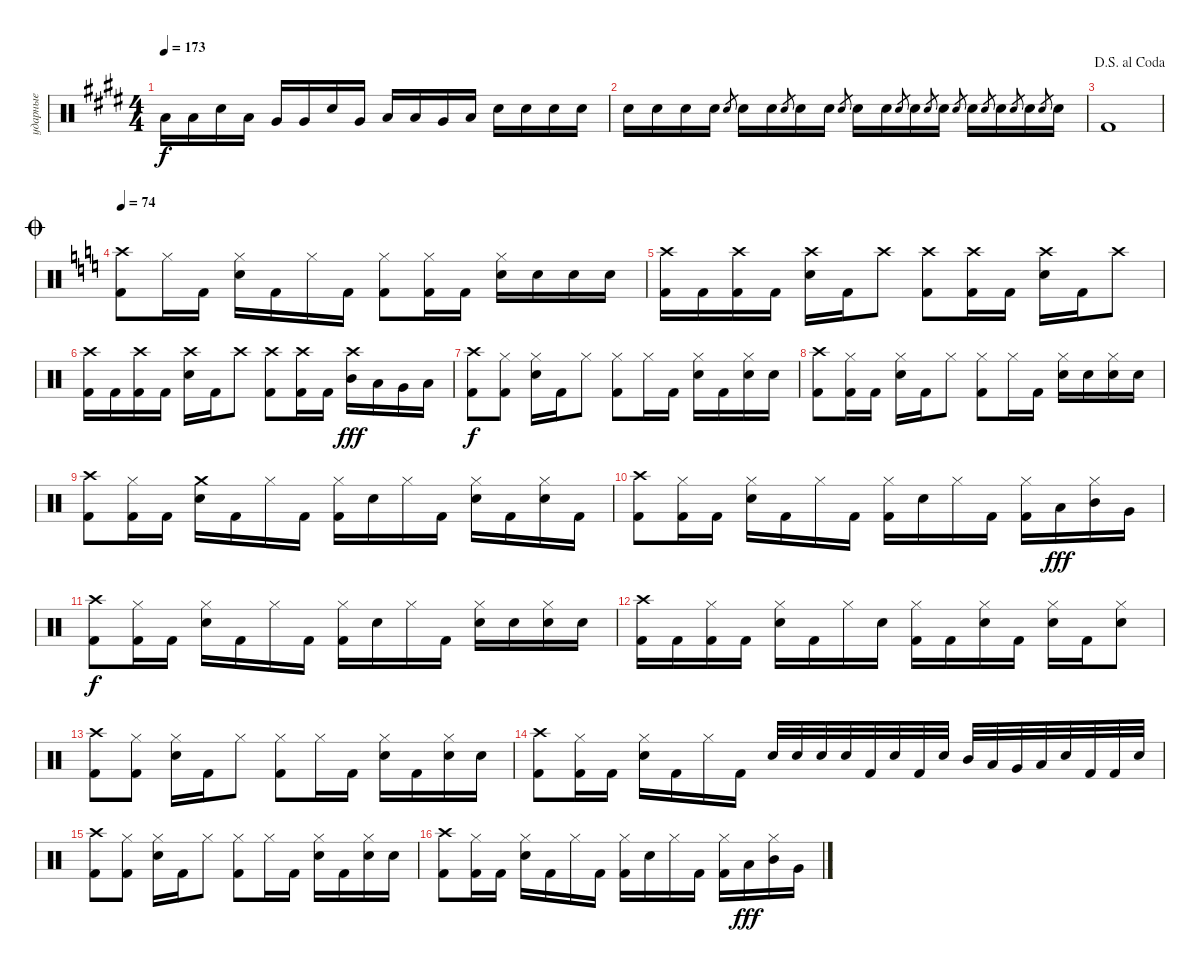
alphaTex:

\track ("ударные" "ударные") {instrument percussion}
\staff {score}
\articulation defaults
\ts (4 4)
\tempo 173
\clef neutral
\ks c#minor "Low Tom (hit)".16{dy f} "Low Tom (hit)".16 "Snare (hit) 2".16 "Low Tom (hit)".16 "Very Low Tom (hit)".16 "Very Low Tom (hit)".16 "Snare (hit) 2".16 "Very Low Tom (hit)".16 "Low Floor Tom (hit)".16 "Low Floor Tom (hit)".16 "Very Low Tom (hit)".16 "Low Floor Tom (hit)".16 "Snare (hit) 2".16 "Snare (hit) 2".16 "Snare (hit) 2".16 "Snare (hit) 2".16
|
"Snare (hit) 2".16 "Snare (hit) 2".16 "Snare (hit) 2".16 "Snare (hit) 2".16 "Snare (hit) 2".8{gr} "Snare (hit) 2".16 "Snare (hit) 2".16 "Snare (hit) 2".8{gr} "Snare (hit) 2".16 "Snare (hit) 2".16 "Snare (hit) 2".8{gr} "Snare (hit) 2".16 "Snare (hit) 2".16 "Snare (hit) 2".8{gr} "Snare (hit) 2".16 "Snare (hit) 2".8{gr} "Snare (hit) 2".16 "Snare (hit) 2".8{gr} "Snare (hit) 2".16 "Snare (hit) 2".8{gr} "Snare (hit) 2".16 "Snare (hit) 2".8{gr} "Snare (hit) 2".16 "Snare (hit) 2".8{gr} "Snare (hit) 2".16 |
\jump dalsegnoalcoda "Kick (hit) 2".1
|
\jump coda
\tempo 74
\ks aminor
("Kick (hit) 2" "Crash high (hit)").8 "Hi-Hat (closed)".16 "Kick (hit) 2".16 ("Snare (hit) 2" "Hi-Hat (closed)").16 "Kick (hit) 2".16 "Hi-Hat (closed)".16 "Kick (hit) 2".16 ("Kick (hit) 2" "Hi-Hat (closed)").8 ("Kick (hit) 2" "Hi-Hat (closed)").16 "Kick (hit) 2".16 ("Snare (hit) 2" "Hi-Hat (closed)").16 "Snare (hit) 2".16 "Snare (hit) 2".16 "Snare (hit) 2".16 |
("Kick (hit) 2" "Crash high (hit)").16 "Kick (hit) 2".16 ("Crash high (hit)" "Kick (hit) 2").16 "Kick (hit) 2".16 ("Crash high (hit)" "Snare (hit) 2").16 "Kick (hit) 2".16 "Crash high (hit)".8 ("Kick (hit) 2" "Crash high (hit)").8 ("Kick (hit) 2" "Crash high (hit)").16 "Kick (hit) 2".16 ("Snare (hit) 2" "Crash high (hit)").16 "Kick (hit) 2".16 "Crash high (hit)".8 |
("Kick (hit) 2" "Crash high (hit)").16 "Kick (hit) 2".16 ("Crash high (hit)" "Kick (hit) 2").16 "Kick (hit) 2".16 ("Crash high (hit)" "Snare (hit) 2").16 "Kick (hit) 2".16 "Crash high (hit)".8 ("Kick (hit) 2" "Crash high (hit)").8 ("Kick (hit) 2" "Crash high (hit)").16 "Kick (hit) 2".16 ("Mid Tom (hit)" "Crash high (hit)").16{dy fff} "Low Tom (hit)".16 "Very Low Tom (hit)".16 "Low Floor Tom (hit)".16 |
("Kick (hit) 2" "Crash high (hit)").8{dy f} ("Kick (hit) 2" "Hi-Hat (closed)").8 ("Snare (hit) 2" "Hi-Hat (closed)").16 "Kick (hit) 2".16 "Hi-Hat (closed)".8 ("Kick (hit) 2" "Hi-Hat (closed)").8 "Hi-Hat (closed)".16 "Kick (hit) 2".16 ("Snare (hit) 2" "Hi-Hat (closed)").16 "Kick (hit) 2".16 ("Snare (hit) 2" "Hi-Hat (closed)").16 "Snare (hit) 2".16 |
("Kick (hit) 2" "Crash high (hit)").8 ("Kick (hit) 2" "Hi-Hat (closed)").16 "Kick (hit) 2".16 ("Snare (hit) 2" "Hi-Hat (closed)").16 "Kick (hit) 2".16 "Hi-Hat (closed)".8 ("Kick (hit) 2" "Hi-Hat (closed)").8 "Hi-Hat (closed)".16 "Kick (hit) 2".16 ("Snare (hit) 2" "Hi-Hat (closed)").16 "Snare (hit) 2".16 ("Snare (hit) 2" "Hi-Hat (closed)").16 "Snare (hit) 2".16 |
("Kick (hit) 2" "Crash high (hit)").8 ("Kick (hit) 2" "Hi-Hat (closed)").16 "Kick (hit) 2".16 ("Snare (hit) 2" "Crash medium (hit)").16 "Kick (hit) 2".16 "Hi-Hat (closed)".16 "Kick (hit) 2".16 ("Kick (hit) 2" "Hi-Hat (closed)").16 "Snare (hit) 2".16 "Hi-Hat (closed)".16 "Kick (hit) 2".16 ("Snare (hit) 2" "Hi-Hat (closed)").16 "Kick (hit) 2".16 ("Snare (hit) 2" "Hi-Hat (closed)").16 "Kick (hit) 2".16 |
("Kick (hit) 2" "Crash high (hit)").8 ("Kick (hit) 2" "Hi-Hat (closed)").16 "Kick (hit) 2".16 ("Snare (hit) 2" "Hi-Hat (closed)").16 "Kick (hit) 2".16 "Hi-Hat (closed)".16 "Kick (hit) 2".16 ("Kick (hit) 2" "Hi-Hat (closed)").16 "Snare (hit) 2".16 "Hi-Hat (closed)".16 "Kick (hit) 2".16 ("Kick (hit) 2" "Hi-Hat (closed)").16 "Low Tom (hit)".16{dy fff} ("Mid Tom (hit)" "Hi-Hat (closed)").16 "Very Low Tom (hit)".16 |
("Kick (hit) 2" "Crash high (hit)").8{dy f} ("Kick (hit) 2" "Hi-Hat (closed)").16 "Kick (hit) 2".16 ("Snare (hit) 2" "Hi-Hat (closed)").16 "Kick (hit) 2".16 "Hi-Hat (closed)".16 "Kick (hit) 2".16 ("Kick (hit) 2" "Hi-Hat (closed)").16 "Snare (hit) 2".16 "Hi-Hat (closed)".16 "Kick (hit) 2".16 ("Snare (hit) 2" "Hi-Hat (closed)").16 "Snare (hit) 2".16 ("Snare (hit) 2" "Hi-Hat (closed)").16 "Snare (hit) 2".16 |
("Kick (hit) 2" "Crash high (hit)").16 "Kick (hit) 2".16 ("Kick (hit) 2" "Hi-Hat (closed)").16 "Kick (hit) 2".16 ("Snare (hit) 2" "Hi-Hat (closed)").16 "Kick (hit) 2".16 "Hi-Hat (closed)".16 "Snare (hit) 2".16 ("Kick (hit) 2" "Hi-Hat (closed)").16 "Kick (hit) 2".16 ("Hi-Hat (closed)" "Snare (hit) 2").16 "Kick (hit) 2".16 ("Snare (hit) 2" "Hi-Hat (closed)").16 "Kick (hit) 2".16 ("Hi-Hat (closed)" "Snare (hit) 2").8 |
("Kick (hit) 2" "Crash high (hit)").8 ("Kick (hit) 2" "Hi-Hat (closed)").8 ("Snare (hit) 2" "Hi-Hat (closed)").16 "Kick (hit) 2".16 "Hi-Hat (closed)".8 ("Kick (hit) 2" "Hi-Hat (closed)").8 "Hi-Hat (closed)".16 "Kick (hit) 2".16 ("Snare (hit) 2" "Hi-Hat (closed)").16 "Kick (hit) 2".16 ("Snare (hit) 2" "Hi-Hat (closed)").16 "Snare (hit) 2".16 |
("Kick (hit) 2" "Crash high (hit)").8 ("Kick (hit) 2" "Hi-Hat (closed)").16 "Kick (hit) 2".16 ("Snare (hit) 2" "Hi-Hat (closed)").16 "Kick (hit) 2".16 "Hi-Hat (closed)".16 "Kick (hit) 2".16 "Snare (hit) 2".32 "Snare (hit) 2".32 "Snare (hit) 2".32 "Snare (hit) 2".32 "Kick (hit) 2".32 "Snare (hit) 2".32 "Kick (hit) 2".32 "Snare (hit) 2".32 "Mid Tom (hit)".32 "Low Tom (hit)".32 "Very Low Tom (hit)".32 "Low Floor Tom (hit)".32 "Snare (hit) 2".32 "Kick (hit) 2".32 "Kick (hit) 2".32 "Snare (hit) 2".32 |
("Kick (hit) 2" "Crash high (hit)").8 ("Kick (hit) 2" "Hi-Hat (closed)").8 ("Snare (hit) 2" "Hi-Hat (closed)").16 "Kick (hit) 2".16 "Hi-Hat (closed)".8 ("Kick (hit) 2" "Hi-Hat (closed)").8 "Hi-Hat (closed)".16 "Kick (hit) 2".16 ("Snare (hit) 2" "Hi-Hat (closed)").16 "Kick (hit) 2".16 ("Snare (hit) 2" "Hi-Hat (closed)").16 "Snare (hit) 2".16 |
("Kick (hit) 2" "Crash high (hit)").8 ("Kick (hit) 2" "Hi-Hat (closed)").16 "Kick (hit) 2".16 ("Snare (hit) 2" "Hi-Hat (closed)").16 "Kick (hit) 2".16 "Hi-Hat (closed)".16 "Kick (hit) 2".16 ("Kick (hit) 2" "Hi-Hat (closed)").16 "Snare (hit) 2".16 "Hi-Hat (closed)".16 "Kick (hit) 2".16 ("Kick (hit) 2" "Hi-Hat (closed)").16 "Low Tom (hit)".16{dy fff} ("Mid Tom (hit)" "Hi-Hat (closed)").16 "Very Low Tom (hit)".16
